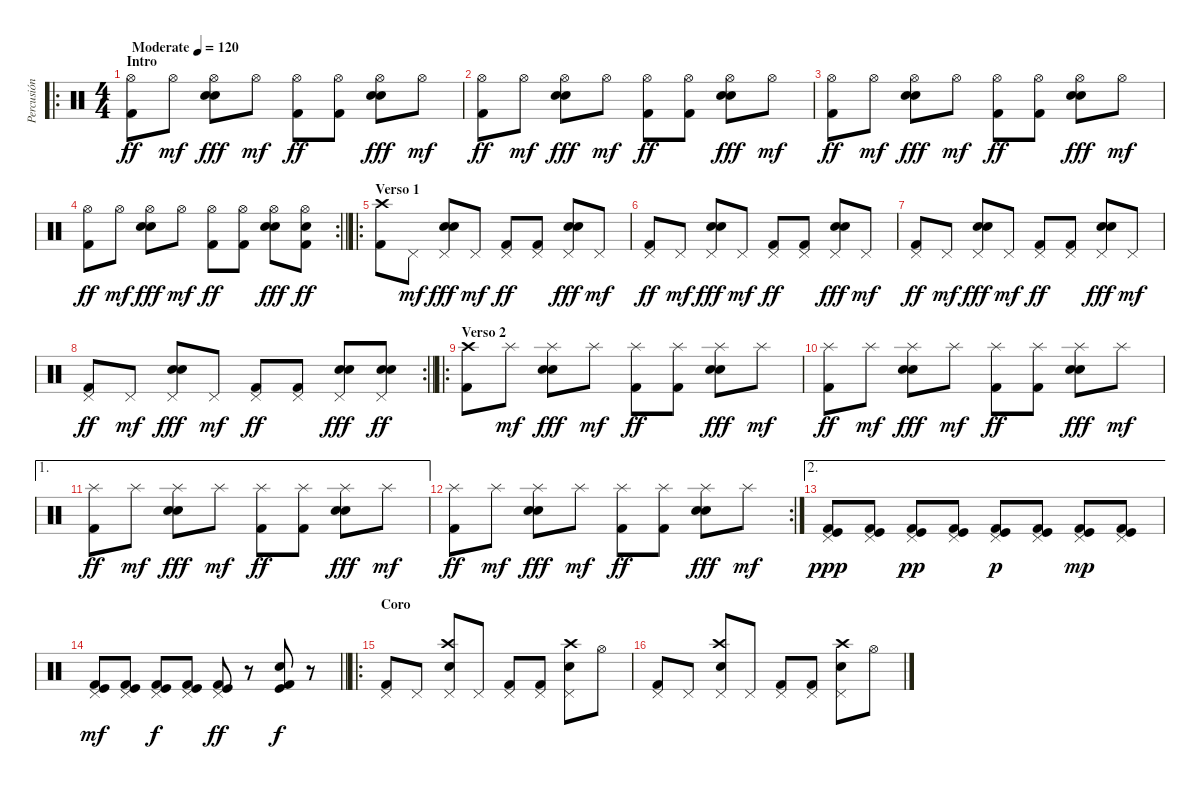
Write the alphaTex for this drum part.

\track ("Percusión" "Percusión") {instrument percussion}
\staff {score}
\articulation defaults
\ro
\ts (4 4)
\section ("" "Intro")
\tempo (120 "Moderate")
\clef neutral
\ks c
("Hi-Hat (open)" "Kick (hit) 2").8{dy ff} "Hi-Hat (open)".8{dy mf} ("Hi-Hat (open)" "Electric Snare (hit)" "Snare (hit) 2").8{dy fff} "Hi-Hat (open)".8{dy mf} ("Hi-Hat (open)" "Kick (hit) 2").8{dy ff} ("Hi-Hat (open)" "Kick (hit) 2").8 ("Hi-Hat (open)" "Electric Snare (hit)" "Snare (hit) 2").8{dy fff} "Hi-Hat (open)".8{dy mf} |
("Hi-Hat (open)" "Kick (hit) 2").8{dy ff} "Hi-Hat (open)".8{dy mf} ("Hi-Hat (open)" "Electric Snare (hit)" "Snare (hit) 2").8{dy fff} "Hi-Hat (open)".8{dy mf} ("Hi-Hat (open)" "Kick (hit) 2").8{dy ff} ("Hi-Hat (open)" "Kick (hit) 2").8 ("Hi-Hat (open)" "Electric Snare (hit)" "Snare (hit) 2").8{dy fff} "Hi-Hat (open)".8{dy mf} |
("Hi-Hat (open)" "Kick (hit) 2").8{dy ff} "Hi-Hat (open)".8{dy mf} ("Hi-Hat (open)" "Electric Snare (hit)" "Snare (hit) 2").8{dy fff} "Hi-Hat (open)".8{dy mf} ("Hi-Hat (open)" "Kick (hit) 2").8{dy ff} ("Hi-Hat (open)" "Kick (hit) 2").8 ("Hi-Hat (open)" "Electric Snare (hit)" "Snare (hit) 2").8{dy fff} "Hi-Hat (open)".8{dy mf} |
\rc 2
\barLineRight lightlight
("Hi-Hat (open)" "Kick (hit) 2").8{dy ff} "Hi-Hat (open)".8{dy mf} ("Hi-Hat (open)" "Electric Snare (hit)" "Snare (hit) 2").8{dy fff} "Hi-Hat (open)".8{dy mf} ("Hi-Hat (open)" "Kick (hit) 2").8{dy ff} ("Hi-Hat (open)" "Kick (hit) 2").8 ("Hi-Hat (open)" "Electric Snare (hit)" "Snare (hit) 2").8{dy fff} ("Hi-Hat (open)" "Electric Snare (hit)" "Kick (hit) 2").8{dy ff} |
\ro
\section ("" "Verso 1")
("Crash high (hit)" "Kick (hit) 2").8 "Pedal Hi-Hat (hit)".8{dy mf} ("Pedal Hi-Hat (hit)" "Electric Snare (hit)" "Snare (hit) 2").8{dy fff} "Pedal Hi-Hat (hit)".8{dy mf} ("Pedal Hi-Hat (hit)" "Kick (hit) 2").8{dy ff} ("Pedal Hi-Hat (hit)" "Kick (hit) 2").8 ("Pedal Hi-Hat (hit)" "Electric Snare (hit)" "Snare (hit) 2").8{dy fff} "Pedal Hi-Hat (hit)".8{dy mf} |
("Pedal Hi-Hat (hit)" "Kick (hit) 2").8{dy ff} "Pedal Hi-Hat (hit)".8{dy mf} ("Pedal Hi-Hat (hit)" "Electric Snare (hit)" "Snare (hit) 2").8{dy fff} "Pedal Hi-Hat (hit)".8{dy mf} ("Pedal Hi-Hat (hit)" "Kick (hit) 2").8{dy ff} ("Pedal Hi-Hat (hit)" "Kick (hit) 2").8 ("Pedal Hi-Hat (hit)" "Electric Snare (hit)" "Snare (hit) 2").8{dy fff} "Pedal Hi-Hat (hit)".8{dy mf} |
("Pedal Hi-Hat (hit)" "Kick (hit) 2").8{dy ff} "Pedal Hi-Hat (hit)".8{dy mf} ("Pedal Hi-Hat (hit)" "Electric Snare (hit)" "Snare (hit) 2").8{dy fff} "Pedal Hi-Hat (hit)".8{dy mf} ("Pedal Hi-Hat (hit)" "Kick (hit) 2").8{dy ff} ("Pedal Hi-Hat (hit)" "Kick (hit) 2").8 ("Pedal Hi-Hat (hit)" "Electric Snare (hit)" "Snare (hit) 2").8{dy fff} "Pedal Hi-Hat (hit)".8{dy mf} |
\rc 2
\barLineRight lightlight
("Pedal Hi-Hat (hit)" "Kick (hit) 2").8{dy ff} "Pedal Hi-Hat (hit)".8{dy mf} ("Pedal Hi-Hat (hit)" "Electric Snare (hit)" "Snare (hit) 2").8{dy fff} "Pedal Hi-Hat (hit)".8{dy mf} ("Pedal Hi-Hat (hit)" "Kick (hit) 2").8{dy ff} ("Pedal Hi-Hat (hit)" "Kick (hit) 2").8 ("Pedal Hi-Hat (hit)" "Electric Snare (hit)" "Snare (hit) 2").8{dy fff} ("Pedal Hi-Hat (hit)" "Electric Snare (hit)" "Snare (hit) 2").8{dy ff} |
\ro
\section ("" "Verso 2")
("Crash high (hit)" "Kick (hit) 2").8 "Splash (hit)".8{dy mf} ("Splash (hit)" "Electric Snare (hit)" "Snare (hit) 2").8{dy fff} "Splash (hit)".8{dy mf} ("Splash (hit)" "Kick (hit) 2").8{dy ff} ("Splash (hit)" "Kick (hit) 2").8 ("Splash (hit)" "Electric Snare (hit)" "Snare (hit) 2").8{dy fff} "Splash (hit)".8{dy mf} |
("Splash (hit)" "Kick (hit) 2").8{dy ff} "Splash (hit)".8{dy mf} ("Splash (hit)" "Electric Snare (hit)" "Snare (hit) 2").8{dy fff} "Splash (hit)".8{dy mf} ("Splash (hit)" "Kick (hit) 2").8{dy ff} ("Splash (hit)" "Kick (hit) 2").8 ("Splash (hit)" "Electric Snare (hit)" "Snare (hit) 2").8{dy fff} "Splash (hit)".8{dy mf} |
\ae 1
("Splash (hit)" "Kick (hit) 2").8{dy ff} "Splash (hit)".8{dy mf} ("Splash (hit)" "Electric Snare (hit)" "Snare (hit) 2").8{dy fff} "Splash (hit)".8{dy mf} ("Splash (hit)" "Kick (hit) 2").8{dy ff} ("Splash (hit)" "Kick (hit) 2").8 ("Splash (hit)" "Electric Snare (hit)" "Snare (hit) 2").8{dy fff} "Splash (hit)".8{dy mf} |
\rc 2
("Splash (hit)" "Kick (hit) 2").8{dy ff} "Splash (hit)".8{dy mf} ("Splash (hit)" "Electric Snare (hit)" "Snare (hit) 2").8{dy fff} "Splash (hit)".8{dy mf} ("Splash (hit)" "Kick (hit) 2").8{dy ff} ("Splash (hit)" "Kick (hit) 2").8 ("Splash (hit)" "Electric Snare (hit)" "Snare (hit) 2").8{dy fff} "Splash (hit)".8{dy mf} |
\ae 2
("Kick (hit)" "Kick (hit) 2" "Pedal Hi-Hat (hit)").8{dy ppp} ("Kick (hit)" "Kick (hit) 2" "Pedal Hi-Hat (hit)").8 ("Kick (hit)" "Kick (hit) 2" "Pedal Hi-Hat (hit)").8{dy pp} ("Kick (hit)" "Kick (hit) 2" "Pedal Hi-Hat (hit)").8 ("Kick (hit)" "Kick (hit) 2" "Pedal Hi-Hat (hit)").8{dy p} ("Kick (hit)" "Kick (hit) 2" "Pedal Hi-Hat (hit)").8 ("Kick (hit)" "Kick (hit) 2" "Pedal Hi-Hat (hit)").8{dy mp} ("Kick (hit)" "Kick (hit) 2" "Pedal Hi-Hat (hit)").8 |
\barLineRight lightlight
("Kick (hit)" "Kick (hit) 2" "Pedal Hi-Hat (hit)").8{dy mf} ("Kick (hit)" "Kick (hit) 2" "Pedal Hi-Hat (hit)").8 ("Kick (hit)" "Kick (hit) 2" "Pedal Hi-Hat (hit)").8{dy f} ("Kick (hit)" "Kick (hit) 2" "Pedal Hi-Hat (hit)").8 ("Kick (hit)" "Kick (hit) 2" "Pedal Hi-Hat (hit)").8{dy ff} r.8 ("Kick (hit)" "Snare (hit) 2" "Kick (hit) 2").8{dy f} r.8 |
\ro
\section ("" "Coro")
("Pedal Hi-Hat (hit)" "Kick (hit) 2").8 "Pedal Hi-Hat (hit)".8 ("Pedal Hi-Hat (hit)" "Crash high (hit)" "Snare (hit) 2").8 "Pedal Hi-Hat (hit)".8 ("Pedal Hi-Hat (hit)" "Kick (hit) 2").8 ("Pedal Hi-Hat (hit)" "Kick (hit) 2").8 ("Pedal Hi-Hat (hit)" "Crash high (hit)" "Snare (hit) 2").8 "Hi-Hat (open)".8 |
("Pedal Hi-Hat (hit)" "Kick (hit) 2").8 "Pedal Hi-Hat (hit)".8 ("Pedal Hi-Hat (hit)" "Crash high (hit)" "Snare (hit) 2").8 "Pedal Hi-Hat (hit)".8 ("Pedal Hi-Hat (hit)" "Kick (hit) 2").8 ("Pedal Hi-Hat (hit)" "Kick (hit) 2").8 ("Pedal Hi-Hat (hit)" "Crash high (hit)" "Snare (hit) 2").8 "Hi-Hat (open)".8
